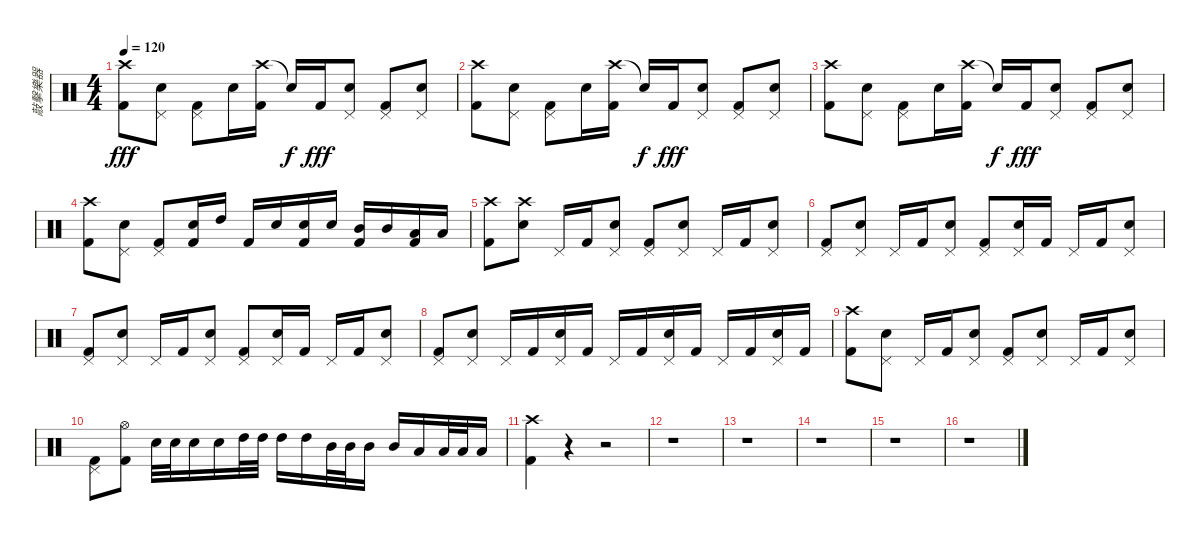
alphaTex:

\track ("敲擊樂器" "敲擊樂器") {instrument percussion}
\staff {score}
\articulation defaults
\ts (4 4)
\tempo 120
\clef neutral
\ks c
("Crash high (hit)" "Kick (hit) 2").8{dy fff} ("Pedal Hi-Hat (hit)" "Snare (hit) 2").8 ("Pedal Hi-Hat (hit)" "Kick (hit) 2").8 "Snare (hit) 2".16 ("Crash high (hit)" "Kick (hit) 2").16 "Snare (hit)"{t}.16{dy f} "Kick (hit) 2".16{dy fff} ("Pedal Hi-Hat (hit)" "Snare (hit) 2").8 ("Pedal Hi-Hat (hit)" "Kick (hit) 2").8 ("Pedal Hi-Hat (hit)" "Snare (hit) 2").8 |
("Crash high (hit)" "Kick (hit) 2").8 ("Pedal Hi-Hat (hit)" "Snare (hit) 2").8 ("Pedal Hi-Hat (hit)" "Kick (hit) 2").8 "Snare (hit) 2".16 ("Crash high (hit)" "Kick (hit) 2").16 "Snare (hit)"{t}.16{dy f} "Kick (hit) 2".16{dy fff} ("Pedal Hi-Hat (hit)" "Snare (hit) 2").8 ("Pedal Hi-Hat (hit)" "Kick (hit) 2").8 ("Pedal Hi-Hat (hit)" "Snare (hit) 2").8 |
("Crash high (hit)" "Kick (hit) 2").8 ("Pedal Hi-Hat (hit)" "Snare (hit) 2").8 ("Pedal Hi-Hat (hit)" "Kick (hit) 2").8 "Snare (hit) 2".16 ("Crash high (hit)" "Kick (hit) 2").16 "Snare (hit)"{t}.16{dy f} "Kick (hit) 2".16{dy fff} ("Pedal Hi-Hat (hit)" "Snare (hit) 2").8 ("Pedal Hi-Hat (hit)" "Kick (hit) 2").8 ("Pedal Hi-Hat (hit)" "Snare (hit) 2").8 |
("Crash high (hit)" "Kick (hit) 2").8 ("Pedal Hi-Hat (hit)" "Snare (hit) 2").8 ("Pedal Hi-Hat (hit)" "Kick (hit) 2").8 ("Snare (hit) 2" "Kick (hit) 2").16 "High Tom (hit)".16 "Kick (hit) 2".16 "Snare (hit) 2".16 ("Snare (hit) 2" "Kick (hit) 2").16 "Snare (hit) 2".16 ("Mid Tom (hit)" "Kick (hit) 2").16 "Mid Tom (hit)".16 ("Low Tom (hit)" "Kick (hit) 2").16 "Low Tom (hit)".16 |
("Crash high (hit)" "Kick (hit) 2").8 ("Crash high (hit)" "Snare (hit) 2").8 "Pedal Hi-Hat (hit)".16 "Kick (hit) 2".16 ("Pedal Hi-Hat (hit)" "Snare (hit) 2").8 ("Pedal Hi-Hat (hit)" "Kick (hit) 2").8 ("Pedal Hi-Hat (hit)" "Snare (hit) 2").8 "Pedal Hi-Hat (hit)".16 "Kick (hit) 2".16 ("Pedal Hi-Hat (hit)" "Snare (hit) 2").8 |
("Pedal Hi-Hat (hit)" "Kick (hit) 2").8 ("Pedal Hi-Hat (hit)" "Snare (hit) 2").8 "Pedal Hi-Hat (hit)".16 "Kick (hit) 2".16 ("Pedal Hi-Hat (hit)" "Snare (hit) 2").8 ("Pedal Hi-Hat (hit)" "Kick (hit) 2").8 ("Pedal Hi-Hat (hit)" "Snare (hit) 2").16 "Kick (hit) 2".16 "Pedal Hi-Hat (hit)".16 "Kick (hit) 2".16 ("Pedal Hi-Hat (hit)" "Snare (hit) 2").8 |
("Pedal Hi-Hat (hit)" "Kick (hit) 2").8 ("Pedal Hi-Hat (hit)" "Snare (hit) 2").8 "Pedal Hi-Hat (hit)".16 "Kick (hit) 2".16 ("Pedal Hi-Hat (hit)" "Snare (hit) 2").8 ("Pedal Hi-Hat (hit)" "Kick (hit) 2").8 ("Pedal Hi-Hat (hit)" "Snare (hit) 2").16 "Kick (hit) 2".16 "Pedal Hi-Hat (hit)".16 "Kick (hit) 2".16 ("Pedal Hi-Hat (hit)" "Snare (hit) 2").8 |
("Pedal Hi-Hat (hit)" "Kick (hit) 2").8 ("Pedal Hi-Hat (hit)" "Snare (hit) 2").8 "Pedal Hi-Hat (hit)".16 "Kick (hit) 2".16 ("Pedal Hi-Hat (hit)" "Snare (hit) 2").16 "Kick (hit) 2".16 "Pedal Hi-Hat (hit)".16 "Kick (hit) 2".16 ("Pedal Hi-Hat (hit)" "Snare (hit) 2").16 "Kick (hit) 2".16 "Pedal Hi-Hat (hit)".16 "Kick (hit) 2".16 ("Pedal Hi-Hat (hit)" "Snare (hit) 2").16 "Kick (hit) 2".16 |
("Crash high (hit)" "Kick (hit) 2").8 ("Pedal Hi-Hat (hit)" "Snare (hit) 2").8 "Pedal Hi-Hat (hit)".16 "Kick (hit) 2".16 ("Pedal Hi-Hat (hit)" "Snare (hit) 2").8 ("Pedal Hi-Hat (hit)" "Kick (hit) 2").8 ("Pedal Hi-Hat (hit)" "Snare (hit) 2").8 "Pedal Hi-Hat (hit)".16 "Kick (hit) 2".16 ("Pedal Hi-Hat (hit)" "Snare (hit) 2").8 |
("Pedal Hi-Hat (hit)" "Kick (hit) 2").8 ("Hi-Hat (open)" "Kick (hit) 2").8 "Snare (hit) 2".32 "Snare (hit) 2".32 "Snare (hit) 2".16 "Snare (hit) 2".16 "High Tom (hit)".32 "High Tom (hit)".32 "High Tom (hit)".16 "High Tom (hit)".16 "Mid Tom (hit)".32 "Mid Tom (hit)".32 "Mid Tom (hit)".16 "Mid Tom (hit)".16 "Low Tom (hit)".16 "Low Tom (hit)".32 "Low Tom (hit)".32 "Low Tom (hit)".16 |
("Crash high (hit)" "Kick (hit) 2").4 r.4 r.2 |
r.1 |
r.1 |
r.1 |
r.1 |
r.1
